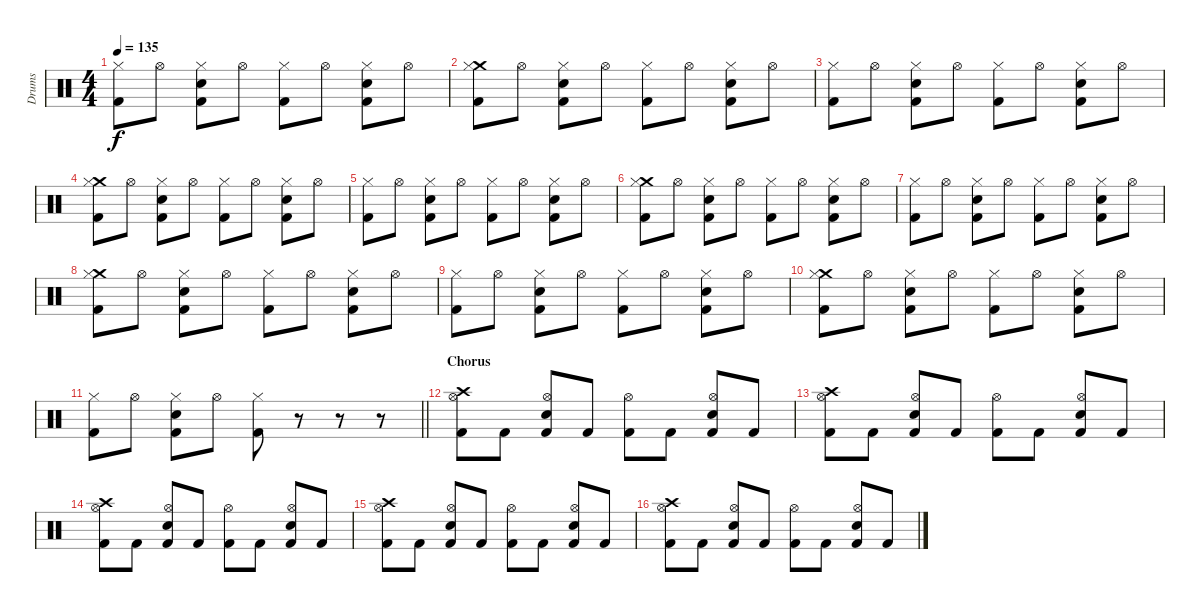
\track ("Drums" "Drums") {instrument percussion}
\staff {score}
\articulation defaults
\ts (4 4)
\tempo 135
\clef neutral
\ks c
("Hi-Hat (closed)" "Kick (hit) 2").8{dy f} "Hi-Hat (open)".8 ("Hi-Hat (closed)" "Snare (hit) 2" "Kick (hit) 2").8 "Hi-Hat (open)".8 ("Hi-Hat (closed)" "Kick (hit) 2").8 "Hi-Hat (open)".8 ("Hi-Hat (closed)" "Snare (hit) 2" "Kick (hit) 2").8 "Hi-Hat (open)".8 |
("Crash medium (hit)" "Hi-Hat (closed)" "Kick (hit) 2").8 "Hi-Hat (open)".8 ("Hi-Hat (closed)" "Snare (hit) 2" "Kick (hit) 2").8 "Hi-Hat (open)".8 ("Hi-Hat (closed)" "Kick (hit) 2").8 "Hi-Hat (open)".8 ("Hi-Hat (closed)" "Snare (hit) 2" "Kick (hit) 2").8 "Hi-Hat (open)".8 |
("Hi-Hat (closed)" "Kick (hit) 2").8 "Hi-Hat (open)".8 ("Hi-Hat (closed)" "Snare (hit) 2" "Kick (hit) 2").8 "Hi-Hat (open)".8 ("Hi-Hat (closed)" "Kick (hit) 2").8 "Hi-Hat (open)".8 ("Hi-Hat (closed)" "Snare (hit) 2" "Kick (hit) 2").8 "Hi-Hat (open)".8 |
("Crash medium (hit)" "Hi-Hat (closed)" "Kick (hit) 2").8 "Hi-Hat (open)".8 ("Hi-Hat (closed)" "Snare (hit) 2" "Kick (hit) 2").8 "Hi-Hat (open)".8 ("Hi-Hat (closed)" "Kick (hit) 2").8 "Hi-Hat (open)".8 ("Hi-Hat (closed)" "Snare (hit) 2" "Kick (hit) 2").8 "Hi-Hat (open)".8 |
("Hi-Hat (closed)" "Kick (hit) 2").8 "Hi-Hat (open)".8 ("Hi-Hat (closed)" "Snare (hit) 2" "Kick (hit) 2").8 "Hi-Hat (open)".8 ("Hi-Hat (closed)" "Kick (hit) 2").8 "Hi-Hat (open)".8 ("Hi-Hat (closed)" "Snare (hit) 2" "Kick (hit) 2").8 "Hi-Hat (open)".8 |
("Crash medium (hit)" "Hi-Hat (closed)" "Kick (hit) 2").8 "Hi-Hat (open)".8 ("Hi-Hat (closed)" "Snare (hit) 2" "Kick (hit) 2").8 "Hi-Hat (open)".8 ("Hi-Hat (closed)" "Kick (hit) 2").8 "Hi-Hat (open)".8 ("Hi-Hat (closed)" "Snare (hit) 2" "Kick (hit) 2").8 "Hi-Hat (open)".8 |
("Hi-Hat (closed)" "Kick (hit) 2").8 "Hi-Hat (open)".8 ("Hi-Hat (closed)" "Snare (hit) 2" "Kick (hit) 2").8 "Hi-Hat (open)".8 ("Hi-Hat (closed)" "Kick (hit) 2").8 "Hi-Hat (open)".8 ("Hi-Hat (closed)" "Snare (hit) 2" "Kick (hit) 2").8 "Hi-Hat (open)".8 |
("Crash medium (hit)" "Hi-Hat (closed)" "Kick (hit) 2").8 "Hi-Hat (open)".8 ("Hi-Hat (closed)" "Snare (hit) 2" "Kick (hit) 2").8 "Hi-Hat (open)".8 ("Hi-Hat (closed)" "Kick (hit) 2").8 "Hi-Hat (open)".8 ("Hi-Hat (closed)" "Snare (hit) 2" "Kick (hit) 2").8 "Hi-Hat (open)".8 |
("Hi-Hat (closed)" "Kick (hit) 2").8 "Hi-Hat (open)".8 ("Hi-Hat (closed)" "Snare (hit) 2" "Kick (hit) 2").8 "Hi-Hat (open)".8 ("Hi-Hat (closed)" "Kick (hit) 2").8 "Hi-Hat (open)".8 ("Hi-Hat (closed)" "Snare (hit) 2" "Kick (hit) 2").8 "Hi-Hat (open)".8 |
("Crash medium (hit)" "Hi-Hat (closed)" "Kick (hit) 2").8 "Hi-Hat (open)".8 ("Hi-Hat (closed)" "Snare (hit) 2" "Kick (hit) 2").8 "Hi-Hat (open)".8 ("Hi-Hat (closed)" "Kick (hit) 2").8 "Hi-Hat (open)".8 ("Hi-Hat (closed)" "Snare (hit) 2" "Kick (hit) 2").8 "Hi-Hat (open)".8 |
\barLineRight lightlight
("Hi-Hat (closed)" "Kick (hit) 2").8 "Hi-Hat (open)".8 ("Hi-Hat (closed)" "Snare (hit) 2" "Kick (hit) 2").8 "Hi-Hat (open)".8 ("Hi-Hat (closed)" "Kick (hit) 2").8 r.8 r.8 r.8 |
\section ("" "Chorus")
("Crash high (hit)" "Hi-Hat (open)" "Kick (hit) 2").8 "Kick (hit) 2".8 ("Hi-Hat (open)" "Snare (hit) 2" "Kick (hit) 2").8 "Kick (hit) 2".8 ("Hi-Hat (open)" "Kick (hit) 2").8 "Kick (hit) 2".8 ("Hi-Hat (open)" "Snare (hit) 2" "Kick (hit) 2").8 "Kick (hit) 2".8 |
("Crash high (hit)" "Hi-Hat (open)" "Kick (hit) 2").8 "Kick (hit) 2".8 ("Hi-Hat (open)" "Snare (hit) 2" "Kick (hit) 2").8 "Kick (hit) 2".8 ("Hi-Hat (open)" "Kick (hit) 2").8 "Kick (hit) 2".8 ("Hi-Hat (open)" "Snare (hit) 2" "Kick (hit) 2").8 "Kick (hit) 2".8 |
("Crash high (hit)" "Hi-Hat (open)" "Kick (hit) 2").8 "Kick (hit) 2".8 ("Hi-Hat (open)" "Snare (hit) 2" "Kick (hit) 2").8 "Kick (hit) 2".8 ("Hi-Hat (open)" "Kick (hit) 2").8 "Kick (hit) 2".8 ("Hi-Hat (open)" "Snare (hit) 2" "Kick (hit) 2").8 "Kick (hit) 2".8 |
("Crash high (hit)" "Hi-Hat (open)" "Kick (hit) 2").8 "Kick (hit) 2".8 ("Hi-Hat (open)" "Snare (hit) 2" "Kick (hit) 2").8 "Kick (hit) 2".8 ("Hi-Hat (open)" "Kick (hit) 2").8 "Kick (hit) 2".8 ("Hi-Hat (open)" "Snare (hit) 2" "Kick (hit) 2").8 "Kick (hit) 2".8 |
("Crash high (hit)" "Hi-Hat (open)" "Kick (hit) 2").8 "Kick (hit) 2".8 ("Hi-Hat (open)" "Snare (hit) 2" "Kick (hit) 2").8 "Kick (hit) 2".8 ("Hi-Hat (open)" "Kick (hit) 2").8 "Kick (hit) 2".8 ("Hi-Hat (open)" "Snare (hit) 2" "Kick (hit) 2").8 "Kick (hit) 2".8
